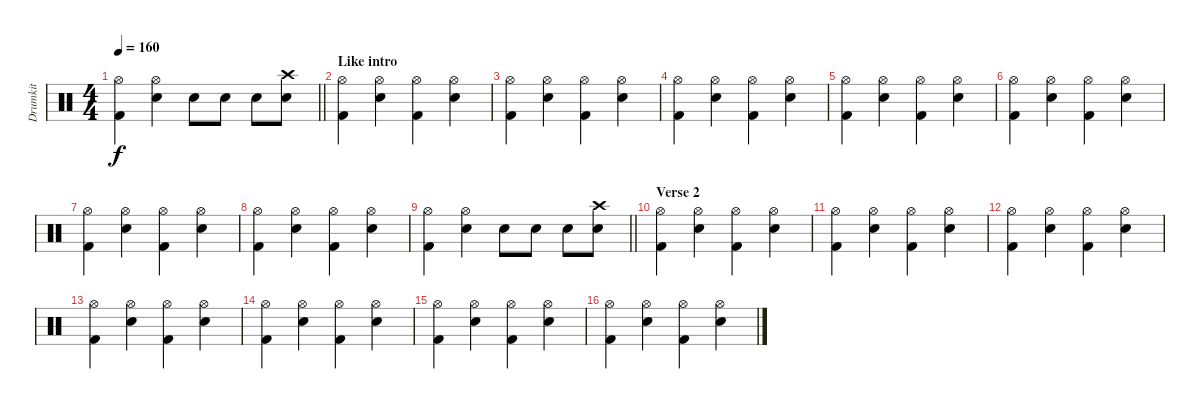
\track ("Drumkit" "Drumkit") {instrument percussion}
\staff {score}
\articulation defaults
\ts (4 4)
\tempo 160
\clef neutral
\barLineRight lightlight
\ks c
("Hi-Hat (open)" "Kick (hit) 2").4{dy f} ("Hi-Hat (open)" "Electric Snare (hit)").4 "Electric Snare (hit)".8 "Electric Snare (hit)".8 "Electric Snare (hit)".8 ("Crash high (hit)" "Electric Snare (hit)").8 |
\section ("" "Like intro")
("Hi-Hat (open)" "Kick (hit) 2").4 ("Hi-Hat (open)" "Electric Snare (hit)").4 ("Hi-Hat (open)" "Kick (hit) 2").4 ("Hi-Hat (open)" "Electric Snare (hit)").4 |
("Hi-Hat (open)" "Kick (hit) 2").4 ("Hi-Hat (open)" "Electric Snare (hit)").4 ("Hi-Hat (open)" "Kick (hit) 2").4 ("Hi-Hat (open)" "Electric Snare (hit)").4 |
("Hi-Hat (open)" "Kick (hit) 2").4 ("Hi-Hat (open)" "Electric Snare (hit)").4 ("Hi-Hat (open)" "Kick (hit) 2").4 ("Hi-Hat (open)" "Electric Snare (hit)").4 |
("Hi-Hat (open)" "Kick (hit) 2").4 ("Hi-Hat (open)" "Electric Snare (hit)").4 ("Hi-Hat (open)" "Kick (hit) 2").4 ("Hi-Hat (open)" "Electric Snare (hit)").4 |
("Hi-Hat (open)" "Kick (hit) 2").4 ("Hi-Hat (open)" "Electric Snare (hit)").4 ("Hi-Hat (open)" "Kick (hit) 2").4 ("Hi-Hat (open)" "Electric Snare (hit)").4 |
("Hi-Hat (open)" "Kick (hit) 2").4 ("Hi-Hat (open)" "Electric Snare (hit)").4 ("Hi-Hat (open)" "Kick (hit) 2").4 ("Hi-Hat (open)" "Electric Snare (hit)").4 |
("Hi-Hat (open)" "Kick (hit) 2").4 ("Hi-Hat (open)" "Electric Snare (hit)").4 ("Hi-Hat (open)" "Kick (hit) 2").4 ("Hi-Hat (open)" "Electric Snare (hit)").4 |
\barLineRight lightlight
("Hi-Hat (open)" "Kick (hit) 2").4 ("Hi-Hat (open)" "Electric Snare (hit)").4 "Electric Snare (hit)".8 "Electric Snare (hit)".8 "Electric Snare (hit)".8 ("Crash high (hit)" "Electric Snare (hit)").8 |
\section ("" "Verse 2")
("Hi-Hat (open)" "Kick (hit) 2").4 ("Hi-Hat (open)" "Electric Snare (hit)").4 ("Hi-Hat (open)" "Kick (hit) 2").4 ("Hi-Hat (open)" "Electric Snare (hit)").4 |
("Hi-Hat (open)" "Kick (hit) 2").4 ("Hi-Hat (open)" "Electric Snare (hit)").4 ("Hi-Hat (open)" "Kick (hit) 2").4 ("Hi-Hat (open)" "Electric Snare (hit)").4 |
("Hi-Hat (open)" "Kick (hit) 2").4 ("Hi-Hat (open)" "Electric Snare (hit)").4 ("Hi-Hat (open)" "Kick (hit) 2").4 ("Hi-Hat (open)" "Electric Snare (hit)").4 |
("Hi-Hat (open)" "Kick (hit) 2").4 ("Hi-Hat (open)" "Electric Snare (hit)").4 ("Hi-Hat (open)" "Kick (hit) 2").4 ("Hi-Hat (open)" "Electric Snare (hit)").4 |
("Hi-Hat (open)" "Kick (hit) 2").4 ("Hi-Hat (open)" "Electric Snare (hit)").4 ("Hi-Hat (open)" "Kick (hit) 2").4 ("Hi-Hat (open)" "Electric Snare (hit)").4 |
("Hi-Hat (open)" "Kick (hit) 2").4 ("Hi-Hat (open)" "Electric Snare (hit)").4 ("Hi-Hat (open)" "Kick (hit) 2").4 ("Hi-Hat (open)" "Electric Snare (hit)").4 |
("Hi-Hat (open)" "Kick (hit) 2").4 ("Hi-Hat (open)" "Electric Snare (hit)").4 ("Hi-Hat (open)" "Kick (hit) 2").4 ("Hi-Hat (open)" "Electric Snare (hit)").4
